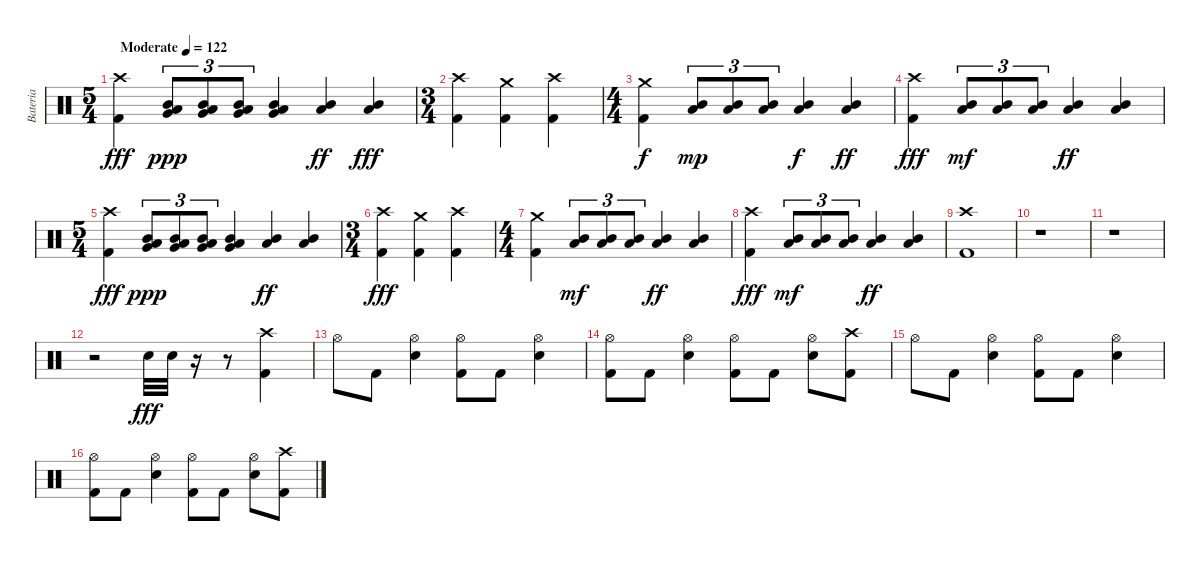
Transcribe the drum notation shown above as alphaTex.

\track ("Bateria" "Bateria") {instrument percussion}
\staff {score}
\articulation defaults
\ts (5 4)
\tempo (122 "Moderate")
\clef neutral
\ks c
("Crash high (hit)" "Kick (hit) 2").4{dy fff} ("Mid Tom (hit)" "Low Floor Tom (hit)" "Very Low Tom (hit)").8{tu (3 2) dy ppp} ("Mid Tom (hit)" "Low Floor Tom (hit)" "Very Low Tom (hit)").8{tu (3 2)} ("Mid Tom (hit)" "Low Floor Tom (hit)" "Very Low Tom (hit)").8{tu (3 2)} ("Mid Tom (hit)" "Low Floor Tom (hit)" "Very Low Tom (hit)").4 ("Mid Tom (hit)" "Low Floor Tom (hit)").4{dy ff} ("Mid Tom (hit)" "Low Floor Tom (hit)").4{dy fff} |
\ts (3 4)
("Crash high (hit)" "Kick (hit) 2").4 ("Crash medium (hit)" "Kick (hit) 2").4 ("Crash high (hit)" "Kick (hit) 2").4 |
\ts (4 4)
("Crash medium (hit)" "Kick (hit) 2").4{dy f} ("Mid Tom (hit)" "Low Floor Tom (hit)").8{tu (3 2) dy mp} ("Mid Tom (hit)" "Low Floor Tom (hit)").8{tu (3 2)} ("Mid Tom (hit)" "Low Floor Tom (hit)").8{tu (3 2)} ("Mid Tom (hit)" "Low Floor Tom (hit)").4{dy f} ("Mid Tom (hit)" "Low Floor Tom (hit)").4{dy ff} |
("Crash high (hit)" "Kick (hit) 2").4{dy fff} ("Mid Tom (hit)" "Low Floor Tom (hit)").8{tu (3 2) dy mf} ("Mid Tom (hit)" "Low Floor Tom (hit)").8{tu (3 2)} ("Mid Tom (hit)" "Low Floor Tom (hit)").8{tu (3 2)} ("Mid Tom (hit)" "Low Floor Tom (hit)").4{dy ff} ("Mid Tom (hit)" "Low Floor Tom (hit)").4 |
\ts (5 4)
("Crash high (hit)" "Kick (hit) 2").4{dy fff} ("Mid Tom (hit)" "Low Floor Tom (hit)" "Very Low Tom (hit)").8{tu (3 2) dy ppp} ("Mid Tom (hit)" "Low Floor Tom (hit)" "Very Low Tom (hit)").8{tu (3 2)} ("Mid Tom (hit)" "Low Floor Tom (hit)" "Very Low Tom (hit)").8{tu (3 2)} ("Mid Tom (hit)" "Low Floor Tom (hit)" "Very Low Tom (hit)").4 ("Mid Tom (hit)" "Low Floor Tom (hit)").4{dy ff} ("Mid Tom (hit)" "Low Floor Tom (hit)").4 |
\ts (3 4)
("Crash high (hit)" "Kick (hit) 2").4{dy fff} ("Crash medium (hit)" "Kick (hit) 2").4 ("Crash high (hit)" "Kick (hit) 2").4 |
\ts (4 4)
("Crash medium (hit)" "Kick (hit) 2").4 ("Mid Tom (hit)" "Low Floor Tom (hit)").8{tu (3 2) dy mf} ("Mid Tom (hit)" "Low Floor Tom (hit)").8{tu (3 2)} ("Mid Tom (hit)" "Low Floor Tom (hit)").8{tu (3 2)} ("Mid Tom (hit)" "Low Floor Tom (hit)").4{dy ff} ("Mid Tom (hit)" "Low Floor Tom (hit)").4 |
("Crash high (hit)" "Kick (hit) 2").4{dy fff} ("Mid Tom (hit)" "Low Floor Tom (hit)").8{tu (3 2) dy mf} ("Mid Tom (hit)" "Low Floor Tom (hit)").8{tu (3 2)} ("Mid Tom (hit)" "Low Floor Tom (hit)").8{tu (3 2)} ("Mid Tom (hit)" "Low Floor Tom (hit)").4{dy ff} ("Mid Tom (hit)" "Low Floor Tom (hit)").4 |
("Crash high (hit)" "Kick (hit) 2").1 |
r.1 |
r.1 |
r.2 "Electric Snare (hit)".32{dy fff} "Electric Snare (hit)".32 r.16 r.8 ("Crash high (hit)" "Kick (hit) 2").4 |
"Hi-Hat (open)".8 "Kick (hit) 2".8 ("Hi-Hat (open)" "Electric Snare (hit)").4 ("Hi-Hat (open)" "Kick (hit) 2").8 "Kick (hit) 2".8 ("Hi-Hat (open)" "Electric Snare (hit)").4 |
("Hi-Hat (open)" "Kick (hit) 2").8 "Kick (hit) 2".8 ("Hi-Hat (open)" "Electric Snare (hit)").4 ("Hi-Hat (open)" "Kick (hit) 2").8 "Kick (hit) 2".8 ("Hi-Hat (open)" "Electric Snare (hit)").8 ("Crash high (hit)" "Kick (hit) 2").8 |
"Hi-Hat (open)".8 "Kick (hit) 2".8 ("Hi-Hat (open)" "Electric Snare (hit)").4 ("Hi-Hat (open)" "Kick (hit) 2").8 "Kick (hit) 2".8 ("Hi-Hat (open)" "Electric Snare (hit)").4 |
("Hi-Hat (open)" "Kick (hit) 2").8 "Kick (hit) 2".8 ("Hi-Hat (open)" "Electric Snare (hit)").4 ("Hi-Hat (open)" "Kick (hit) 2").8 "Kick (hit) 2".8 ("Hi-Hat (open)" "Electric Snare (hit)").8 ("Crash high (hit)" "Kick (hit) 2").8
